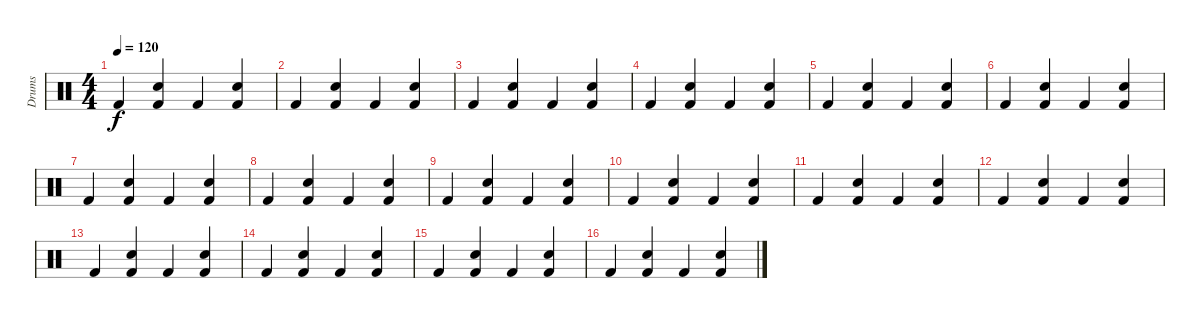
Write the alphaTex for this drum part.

\track ("Drums" "Drums") {instrument percussion}
\staff {score}
\articulation defaults
\ts (4 4)
\tempo 120
\clef neutral
\ks c "Kick (hit) 2".4{dy f}
("Kick (hit) 2" "Hand Clap (hit)").4 "Kick (hit) 2".4 ("Kick (hit) 2" "Hand Clap (hit)").4 |
"Kick (hit) 2".4 ("Kick (hit) 2" "Hand Clap (hit)").4 "Kick (hit) 2".4 ("Kick (hit) 2" "Hand Clap (hit)").4 |
"Kick (hit) 2".4 ("Kick (hit) 2" "Hand Clap (hit)").4 "Kick (hit) 2".4 ("Kick (hit) 2" "Hand Clap (hit)").4 |
"Kick (hit) 2".4 ("Kick (hit) 2" "Hand Clap (hit)").4 "Kick (hit) 2".4 ("Kick (hit) 2" "Hand Clap (hit)").4 |
"Kick (hit) 2".4 ("Kick (hit) 2" "Hand Clap (hit)").4 "Kick (hit) 2".4 ("Kick (hit) 2" "Hand Clap (hit)").4 |
"Kick (hit) 2".4 ("Kick (hit) 2" "Hand Clap (hit)").4 "Kick (hit) 2".4 ("Kick (hit) 2" "Hand Clap (hit)").4 |
"Kick (hit) 2".4 ("Kick (hit) 2" "Hand Clap (hit)").4 "Kick (hit) 2".4 ("Kick (hit) 2" "Hand Clap (hit)").4 |
"Kick (hit) 2".4 ("Kick (hit) 2" "Hand Clap (hit)").4 "Kick (hit) 2".4 ("Kick (hit) 2" "Hand Clap (hit)").4 |
"Kick (hit) 2".4 ("Kick (hit) 2" "Hand Clap (hit)").4 "Kick (hit) 2".4 ("Kick (hit) 2" "Hand Clap (hit)").4 |
"Kick (hit) 2".4 ("Kick (hit) 2" "Hand Clap (hit)").4 "Kick (hit) 2".4 ("Kick (hit) 2" "Hand Clap (hit)").4 |
"Kick (hit) 2".4 ("Kick (hit) 2" "Hand Clap (hit)").4 "Kick (hit) 2".4 ("Kick (hit) 2" "Hand Clap (hit)").4 |
"Kick (hit) 2".4 ("Kick (hit) 2" "Hand Clap (hit)").4 "Kick (hit) 2".4 ("Kick (hit) 2" "Hand Clap (hit)").4 |
"Kick (hit) 2".4 ("Kick (hit) 2" "Hand Clap (hit)").4 "Kick (hit) 2".4 ("Kick (hit) 2" "Hand Clap (hit)").4 |
"Kick (hit) 2".4 ("Kick (hit) 2" "Hand Clap (hit)").4 "Kick (hit) 2".4 ("Kick (hit) 2" "Hand Clap (hit)").4 |
"Kick (hit) 2".4 ("Kick (hit) 2" "Hand Clap (hit)").4 "Kick (hit) 2".4 ("Kick (hit) 2" "Hand Clap (hit)").4 |
"Kick (hit) 2".4 ("Kick (hit) 2" "Hand Clap (hit)").4 "Kick (hit) 2".4 ("Kick (hit) 2" "Hand Clap (hit)").4
